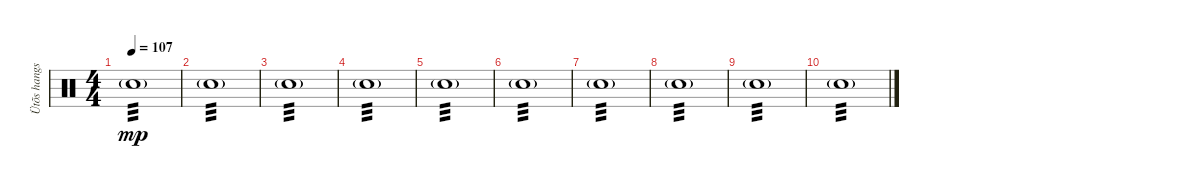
\track ("Ütõs hangszer" "Ütõs hangs") {instrument percussion}
\staff {score}
\articulation defaults
\ts (4 4)
\tempo 107
\clef neutral
\ks c "Electric Snare (hit)"{g}.1{tp 3 dy mp}
|
"Electric Snare (hit)"{g}.1{tp 3} |
"Electric Snare (hit)"{g}.1{tp 3} |
"Electric Snare (hit)"{g}.1{tp 3} |
"Electric Snare (hit)"{g}.1{tp 3} |
"Electric Snare (hit)"{g}.1{tp 3} |
"Electric Snare (hit)"{g}.1{tp 3} |
"Electric Snare (hit)"{g}.1{tp 3} |
"Electric Snare (hit)"{g}.1{tp 3} |
"Electric Snare (hit)"{g}.1{tp 3}
